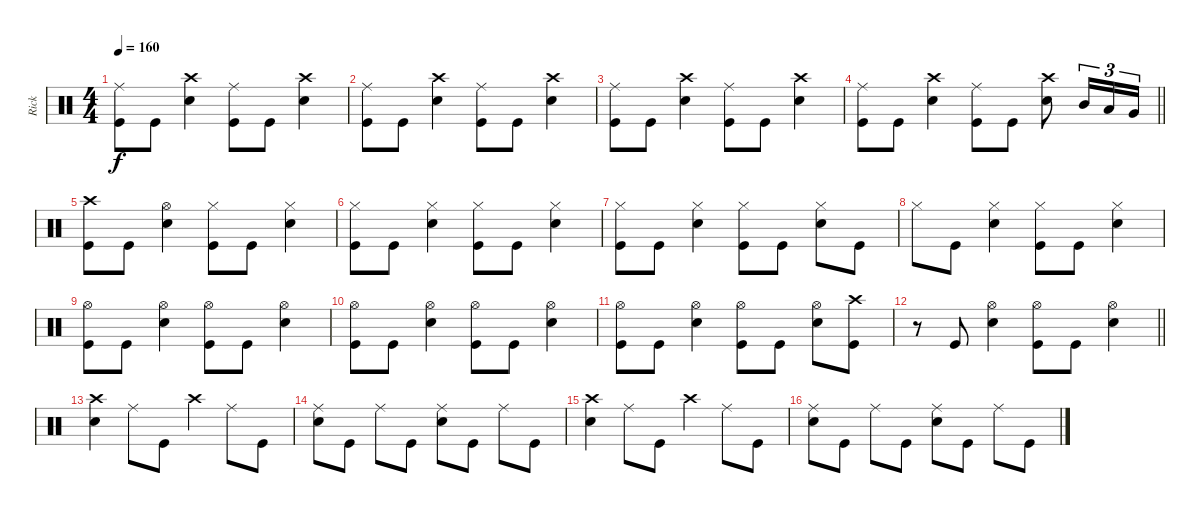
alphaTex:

\track ("Rick" "Rick") {instrument percussion}
\staff {score}
\articulation defaults
\ts (4 4)
\tempo 160
\clef neutral
\ks c
("Ride (middle)" "Kick (hit)").8{dy f} "Kick (hit)".8 ("Crash high (hit)" "Snare (hit) 2").4 ("Ride (middle)" "Kick (hit)").8 "Kick (hit)".8 ("Crash high (hit)" "Snare (hit) 2").4 |
("Ride (middle)" "Kick (hit)").8 "Kick (hit)".8 ("Crash high (hit)" "Snare (hit) 2").4 ("Ride (middle)" "Kick (hit)").8 "Kick (hit)".8 ("Crash high (hit)" "Snare (hit) 2").4 |
("Ride (middle)" "Kick (hit)").8 "Kick (hit)".8 ("Crash high (hit)" "Snare (hit) 2").4 ("Ride (middle)" "Kick (hit)").8 "Kick (hit)".8 ("Crash high (hit)" "Snare (hit) 2").4 |
\barLineRight lightlight
("Ride (middle)" "Kick (hit)").8 "Kick (hit)".8 ("Crash high (hit)" "Snare (hit) 2").4 ("Ride (middle)" "Kick (hit)").8 "Kick (hit)".8 ("Crash high (hit)" "Snare (hit) 2").8 "Mid Tom (hit)".16{tu (3 2)} "Low Tom (hit)".16{tu (3 2)} "Very Low Tom (hit)".16{tu (3 2)} |
("Crash high (hit)" "Kick (hit)").8 "Kick (hit)".8 ("Hi-Hat (open)" "Snare (hit) 2").4 ("Hi-Hat (closed)" "Kick (hit)").8 "Kick (hit)".8 ("Hi-Hat (closed)" "Snare (hit) 2").4 |
("Hi-Hat (closed)" "Kick (hit)").8 "Kick (hit)".8 ("Hi-Hat (closed)" "Snare (hit) 2").4 ("Hi-Hat (closed)" "Kick (hit)").8 "Kick (hit)".8 ("Hi-Hat (closed)" "Snare (hit) 2").4 |
("Hi-Hat (closed)" "Kick (hit)").8 "Kick (hit)".8 ("Hi-Hat (closed)" "Snare (hit) 2").4 ("Hi-Hat (closed)" "Kick (hit)").8 "Kick (hit)".8 ("Hi-Hat (closed)" "Snare (hit) 2").8 "Kick (hit)".8 |
"Hi-Hat (closed)".8 "Kick (hit)".8 ("Hi-Hat (closed)" "Snare (hit) 2").4 ("Hi-Hat (closed)" "Kick (hit)").8 "Kick (hit)".8 ("Hi-Hat (closed)" "Snare (hit) 2").4 |
("Hi-Hat (open)" "Kick (hit)").8 "Kick (hit)".8 ("Hi-Hat (open)" "Snare (hit) 2").4 ("Hi-Hat (open)" "Kick (hit)").8 "Kick (hit)".8 ("Hi-Hat (open)" "Snare (hit) 2").4 |
("Hi-Hat (open)" "Kick (hit)").8 "Kick (hit)".8 ("Hi-Hat (open)" "Snare (hit) 2").4 ("Hi-Hat (open)" "Kick (hit)").8 "Kick (hit)".8 ("Hi-Hat (open)" "Snare (hit) 2").4 |
("Hi-Hat (open)" "Kick (hit)").8 "Kick (hit)".8 ("Hi-Hat (open)" "Snare (hit) 2").4 ("Hi-Hat (open)" "Kick (hit)").8 "Kick (hit)".8 ("Hi-Hat (open)" "Snare (hit) 2").8 ("Crash high (hit)" "Kick (hit)").8 |
\barLineRight lightlight
r.8 "Kick (hit)".8 ("Hi-Hat (open)" "Snare (hit) 2").4 ("Hi-Hat (open)" "Kick (hit)").8 "Kick (hit)".8 ("Hi-Hat (open)" "Snare (hit) 2").4 |
("Crash high (hit)" "Snare (hit) 2").4 "Ride (middle)".8 "Kick (hit)".8 "Crash high (hit)".4 "Ride (middle)".8 "Kick (hit)".8 |
("Ride (middle)" "Snare (hit) 2").8 "Kick (hit)".8 "Ride (middle)".8 "Kick (hit)".8 ("Ride (middle)" "Snare (hit) 2").8 "Kick (hit)".8 "Ride (middle)".8 "Kick (hit)".8 |
("Crash high (hit)" "Snare (hit) 2").4 "Ride (middle)".8 "Kick (hit)".8 "Crash high (hit)".4 "Ride (middle)".8 "Kick (hit)".8 |
("Ride (middle)" "Snare (hit) 2").8 "Kick (hit)".8 "Ride (middle)".8 "Kick (hit)".8 ("Ride (middle)" "Snare (hit) 2").8 "Kick (hit)".8 "Ride (middle)".8 "Kick (hit)".8
